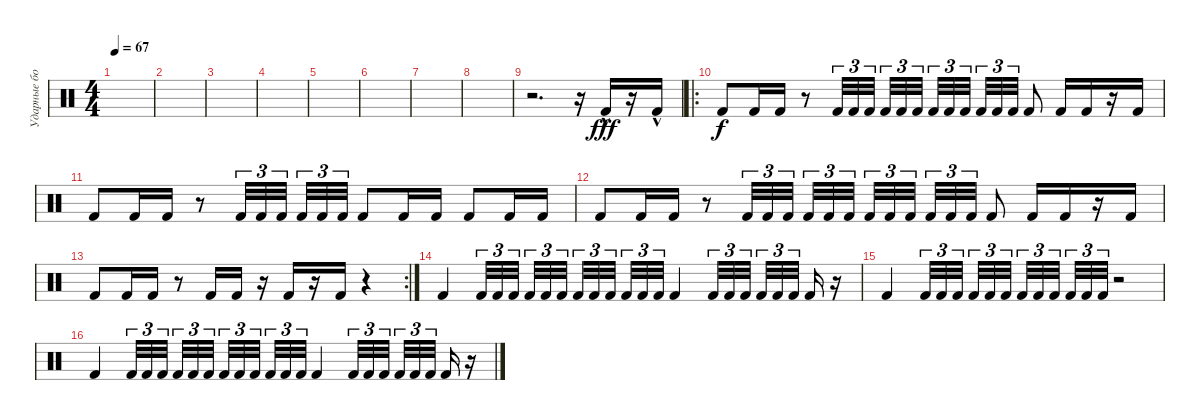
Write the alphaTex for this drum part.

\track ("Ударные бочка" "Ударные бо") {instrument percussion}
\staff {score}
\articulation defaults
\ts (4 4)
\tempo 67
\clef neutral
\ks c
|
|
|
|
|
|
|
|
r.2{d} r.16 "Kick (hit) 2"{hac}.16{dy fff} r.16 "Kick (hit) 2"{hac}.16 |
\ro "Kick (hit) 2".8{dy f} "Kick (hit) 2".16 "Kick (hit) 2".16
r.8 "Kick (hit) 2".32{tu (3 2)} "Kick (hit) 2".32{tu (3 2)} "Kick (hit) 2".32{tu (3 2) beam splitsecondary} "Kick (hit) 2".32{tu (3 2)} "Kick (hit) 2".32{tu (3 2)} "Kick (hit) 2".32{tu (3 2)} "Kick (hit) 2".32{tu (3 2)} "Kick (hit) 2".32{tu (3 2)} "Kick (hit) 2".32{tu (3 2) beam splitsecondary} "Kick (hit) 2".32{tu (3 2)} "Kick (hit) 2".32{tu (3 2)} "Kick (hit) 2".32{tu (3 2)} "Kick (hit) 2".8 "Kick (hit) 2".16 "Kick (hit) 2".16 r.16 "Kick (hit) 2".16 |
"Kick (hit) 2".8 "Kick (hit) 2".16 "Kick (hit) 2".16 r.8 "Kick (hit) 2".32{tu (3 2)} "Kick (hit) 2".32{tu (3 2)} "Kick (hit) 2".32{tu (3 2) beam splitsecondary} "Kick (hit) 2".32{tu (3 2)} "Kick (hit) 2".32{tu (3 2)} "Kick (hit) 2".32{tu (3 2)} "Kick (hit) 2".8 "Kick (hit) 2".16 "Kick (hit) 2".16 "Kick (hit) 2".8 "Kick (hit) 2".16 "Kick (hit) 2".16 |
"Kick (hit) 2".8 "Kick (hit) 2".16 "Kick (hit) 2".16 r.8 "Kick (hit) 2".32{tu (3 2)} "Kick (hit) 2".32{tu (3 2)} "Kick (hit) 2".32{tu (3 2) beam splitsecondary} "Kick (hit) 2".32{tu (3 2)} "Kick (hit) 2".32{tu (3 2)} "Kick (hit) 2".32{tu (3 2)} "Kick (hit) 2".32{tu (3 2)} "Kick (hit) 2".32{tu (3 2)} "Kick (hit) 2".32{tu (3 2) beam splitsecondary} "Kick (hit) 2".32{tu (3 2)} "Kick (hit) 2".32{tu (3 2)} "Kick (hit) 2".32{tu (3 2)} "Kick (hit) 2".8 "Kick (hit) 2".16 "Kick (hit) 2".16 r.16 "Kick (hit) 2".16 |
\rc 2 "Kick (hit) 2".8 "Kick (hit) 2".16 "Kick (hit) 2".16
r.8 "Kick (hit) 2".16 "Kick (hit) 2".16 r.16 "Kick (hit) 2".16 r.16 "Kick (hit) 2".16 r.4 |
"Kick (hit) 2".4 "Kick (hit) 2".32{tu (3 2)} "Kick (hit) 2".32{tu (3 2)} "Kick (hit) 2".32{tu (3 2) beam splitsecondary} "Kick (hit) 2".32{tu (3 2)} "Kick (hit) 2".32{tu (3 2)} "Kick (hit) 2".32{tu (3 2) beam splitsecondary} "Kick (hit) 2".32{tu (3 2)} "Kick (hit) 2".32{tu (3 2)} "Kick (hit) 2".32{tu (3 2) beam splitsecondary} "Kick (hit) 2".32{tu (3 2)} "Kick (hit) 2".32{tu (3 2)} "Kick (hit) 2".32{tu (3 2)} "Kick (hit) 2".4 "Kick (hit) 2".32{tu (3 2)} "Kick (hit) 2".32{tu (3 2)} "Kick (hit) 2".32{tu (3 2) beam splitsecondary} "Kick (hit) 2".32{tu (3 2)} "Kick (hit) 2".32{tu (3 2)} "Kick (hit) 2".32{tu (3 2) beam splitsecondary} "Kick (hit) 2".16 r.16 |
"Kick (hit) 2".4 "Kick (hit) 2".32{tu (3 2)} "Kick (hit) 2".32{tu (3 2)} "Kick (hit) 2".32{tu (3 2) beam splitsecondary} "Kick (hit) 2".32{tu (3 2)} "Kick (hit) 2".32{tu (3 2)} "Kick (hit) 2".32{tu (3 2) beam splitsecondary} "Kick (hit) 2".32{tu (3 2)} "Kick (hit) 2".32{tu (3 2)} "Kick (hit) 2".32{tu (3 2) beam splitsecondary} "Kick (hit) 2".32{tu (3 2)} "Kick (hit) 2".32{tu (3 2)} "Kick (hit) 2".32{tu (3 2)} r.2 |
"Kick (hit) 2".4 "Kick (hit) 2".32{tu (3 2)} "Kick (hit) 2".32{tu (3 2)} "Kick (hit) 2".32{tu (3 2) beam splitsecondary} "Kick (hit) 2".32{tu (3 2)} "Kick (hit) 2".32{tu (3 2)} "Kick (hit) 2".32{tu (3 2) beam splitsecondary} "Kick (hit) 2".32{tu (3 2)} "Kick (hit) 2".32{tu (3 2)} "Kick (hit) 2".32{tu (3 2) beam splitsecondary} "Kick (hit) 2".32{tu (3 2)} "Kick (hit) 2".32{tu (3 2)} "Kick (hit) 2".32{tu (3 2)} "Kick (hit) 2".4 "Kick (hit) 2".32{tu (3 2)} "Kick (hit) 2".32{tu (3 2)} "Kick (hit) 2".32{tu (3 2) beam splitsecondary} "Kick (hit) 2".32{tu (3 2)} "Kick (hit) 2".32{tu (3 2)} "Kick (hit) 2".32{tu (3 2) beam splitsecondary} "Kick (hit) 2".16 r.16
